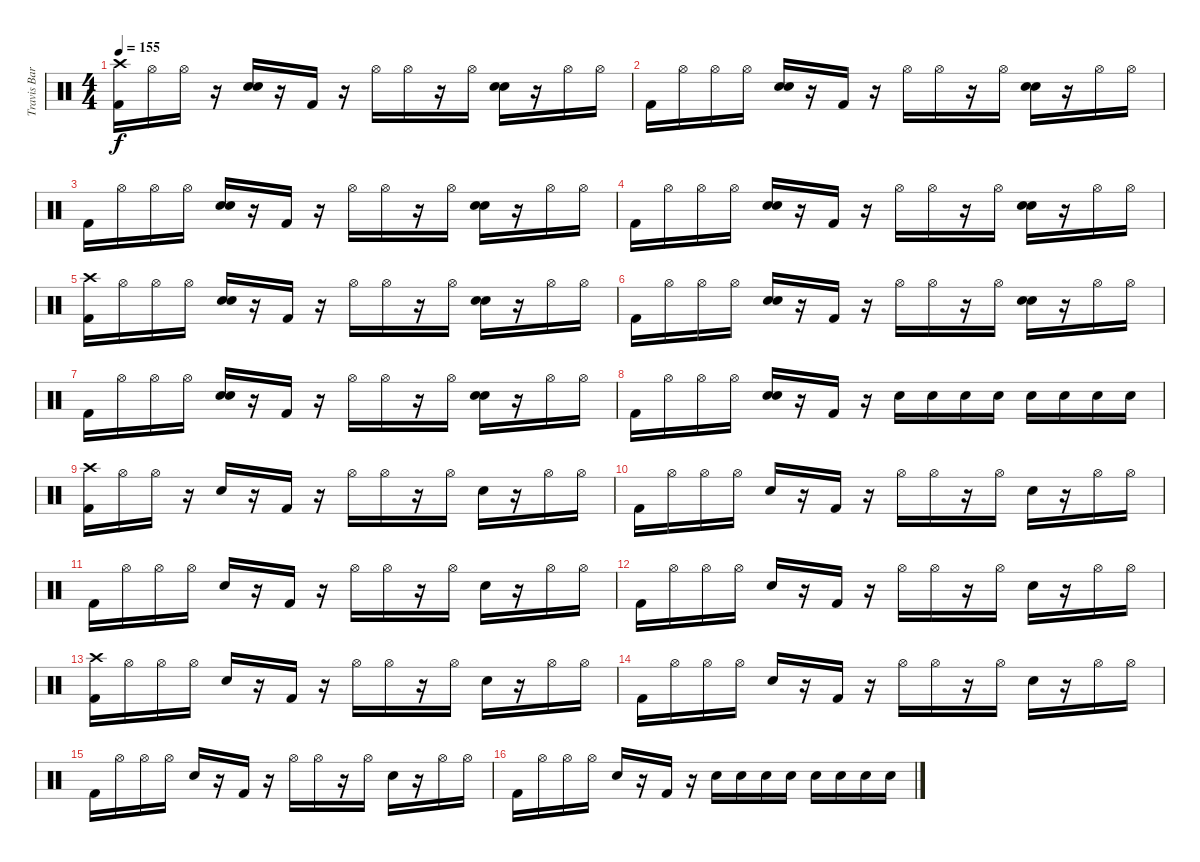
\track ("Travis Barker Drums" "Travis Bar") {instrument percussion}
\staff {score}
\articulation defaults
\ts (4 4)
\tempo 155
\clef neutral
\ks c
("Crash high (hit)" "Kick (hit) 2").16{dy f} "Hi-Hat (open)".16 "Hi-Hat (open)".16 r.16 ("Hand Clap (hit)" "Snare (hit) 2").16 r.16 "Kick (hit) 2".16 r.16 "Hi-Hat (open)".16 "Hi-Hat (open)".16 r.16 "Hi-Hat (open)".16 ("Hand Clap (hit)" "Snare (hit) 2").16 r.16 "Hi-Hat (open)".16 "Hi-Hat (open)".16 |
"Kick (hit) 2".16 "Hi-Hat (open)".16 "Hi-Hat (open)".16 "Hi-Hat (open)".16 ("Hand Clap (hit)" "Snare (hit) 2").16 r.16 "Kick (hit) 2".16 r.16 "Hi-Hat (open)".16 "Hi-Hat (open)".16 r.16 "Hi-Hat (open)".16 ("Hand Clap (hit)" "Snare (hit) 2").16 r.16 "Hi-Hat (open)".16 "Hi-Hat (open)".16 |
"Kick (hit) 2".16 "Hi-Hat (open)".16 "Hi-Hat (open)".16 "Hi-Hat (open)".16 ("Hand Clap (hit)" "Snare (hit) 2").16 r.16 "Kick (hit) 2".16 r.16 "Hi-Hat (open)".16 "Hi-Hat (open)".16 r.16 "Hi-Hat (open)".16 ("Hand Clap (hit)" "Snare (hit) 2").16 r.16 "Hi-Hat (open)".16 "Hi-Hat (open)".16 |
"Kick (hit) 2".16 "Hi-Hat (open)".16 "Hi-Hat (open)".16 "Hi-Hat (open)".16 ("Hand Clap (hit)" "Snare (hit) 2").16 r.16 "Kick (hit) 2".16 r.16 "Hi-Hat (open)".16 "Hi-Hat (open)".16 r.16 "Hi-Hat (open)".16 ("Hand Clap (hit)" "Snare (hit) 2").16 r.16 "Hi-Hat (open)".16 "Hi-Hat (open)".16 |
("Crash high (hit)" "Kick (hit) 2").16 "Hi-Hat (open)".16 "Hi-Hat (open)".16 "Hi-Hat (open)".16 ("Hand Clap (hit)" "Snare (hit) 2").16 r.16 "Kick (hit) 2".16 r.16 "Hi-Hat (open)".16 "Hi-Hat (open)".16 r.16 "Hi-Hat (open)".16 ("Hand Clap (hit)" "Snare (hit) 2").16 r.16 "Hi-Hat (open)".16 "Hi-Hat (open)".16 |
"Kick (hit) 2".16 "Hi-Hat (open)".16 "Hi-Hat (open)".16 "Hi-Hat (open)".16 ("Hand Clap (hit)" "Snare (hit) 2").16 r.16 "Kick (hit) 2".16 r.16 "Hi-Hat (open)".16 "Hi-Hat (open)".16 r.16 "Hi-Hat (open)".16 ("Hand Clap (hit)" "Snare (hit) 2").16 r.16 "Hi-Hat (open)".16 "Hi-Hat (open)".16 |
"Kick (hit) 2".16 "Hi-Hat (open)".16 "Hi-Hat (open)".16 "Hi-Hat (open)".16 ("Hand Clap (hit)" "Snare (hit) 2").16 r.16 "Kick (hit) 2".16 r.16 "Hi-Hat (open)".16 "Hi-Hat (open)".16 r.16 "Hi-Hat (open)".16 ("Hand Clap (hit)" "Snare (hit) 2").16 r.16 "Hi-Hat (open)".16 "Hi-Hat (open)".16 |
"Kick (hit) 2".16 "Hi-Hat (open)".16 "Hi-Hat (open)".16 "Hi-Hat (open)".16 ("Hand Clap (hit)" "Snare (hit) 2").16 r.16 "Kick (hit) 2".16 r.16 "Snare (hit) 2".16 "Snare (hit) 2".16 "Snare (hit) 2".16 "Snare (hit) 2".16 "Snare (hit) 2".16 "Snare (hit) 2".16 "Snare (hit) 2".16 "Snare (hit) 2".16 |
("Crash high (hit)" "Kick (hit) 2").16 "Hi-Hat (open)".16 "Hi-Hat (open)".16 r.16 "Snare (hit) 2".16 r.16 "Kick (hit) 2".16 r.16 "Hi-Hat (open)".16 "Hi-Hat (open)".16 r.16 "Hi-Hat (open)".16 "Snare (hit) 2".16 r.16 "Hi-Hat (open)".16 "Hi-Hat (open)".16 |
"Kick (hit) 2".16 "Hi-Hat (open)".16 "Hi-Hat (open)".16 "Hi-Hat (open)".16 "Snare (hit) 2".16 r.16 "Kick (hit) 2".16 r.16 "Hi-Hat (open)".16 "Hi-Hat (open)".16 r.16 "Hi-Hat (open)".16 "Snare (hit) 2".16 r.16 "Hi-Hat (open)".16 "Hi-Hat (open)".16 |
"Kick (hit) 2".16 "Hi-Hat (open)".16 "Hi-Hat (open)".16 "Hi-Hat (open)".16 "Snare (hit) 2".16 r.16 "Kick (hit) 2".16 r.16 "Hi-Hat (open)".16 "Hi-Hat (open)".16 r.16 "Hi-Hat (open)".16 "Snare (hit) 2".16 r.16 "Hi-Hat (open)".16 "Hi-Hat (open)".16 |
"Kick (hit) 2".16 "Hi-Hat (open)".16 "Hi-Hat (open)".16 "Hi-Hat (open)".16 "Snare (hit) 2".16 r.16 "Kick (hit) 2".16 r.16 "Hi-Hat (open)".16 "Hi-Hat (open)".16 r.16 "Hi-Hat (open)".16 "Snare (hit) 2".16 r.16 "Hi-Hat (open)".16 "Hi-Hat (open)".16 |
("Crash high (hit)" "Kick (hit) 2").16 "Hi-Hat (open)".16 "Hi-Hat (open)".16 "Hi-Hat (open)".16 "Snare (hit) 2".16 r.16 "Kick (hit) 2".16 r.16 "Hi-Hat (open)".16 "Hi-Hat (open)".16 r.16 "Hi-Hat (open)".16 "Snare (hit) 2".16 r.16 "Hi-Hat (open)".16 "Hi-Hat (open)".16 |
"Kick (hit) 2".16 "Hi-Hat (open)".16 "Hi-Hat (open)".16 "Hi-Hat (open)".16 "Snare (hit) 2".16 r.16 "Kick (hit) 2".16 r.16 "Hi-Hat (open)".16 "Hi-Hat (open)".16 r.16 "Hi-Hat (open)".16 "Snare (hit) 2".16 r.16 "Hi-Hat (open)".16 "Hi-Hat (open)".16 |
"Kick (hit) 2".16 "Hi-Hat (open)".16 "Hi-Hat (open)".16 "Hi-Hat (open)".16 "Snare (hit) 2".16 r.16 "Kick (hit) 2".16 r.16 "Hi-Hat (open)".16 "Hi-Hat (open)".16 r.16 "Hi-Hat (open)".16 "Snare (hit) 2".16 r.16 "Hi-Hat (open)".16 "Hi-Hat (open)".16 |
"Kick (hit) 2".16 "Hi-Hat (open)".16 "Hi-Hat (open)".16 "Hi-Hat (open)".16 "Snare (hit) 2".16 r.16 "Kick (hit) 2".16 r.16 "Snare (hit) 2".16 "Snare (hit) 2".16 "Snare (hit) 2".16 "Snare (hit) 2".16 "Snare (hit) 2".16 "Snare (hit) 2".16 "Snare (hit) 2".16 "Snare (hit) 2".16
